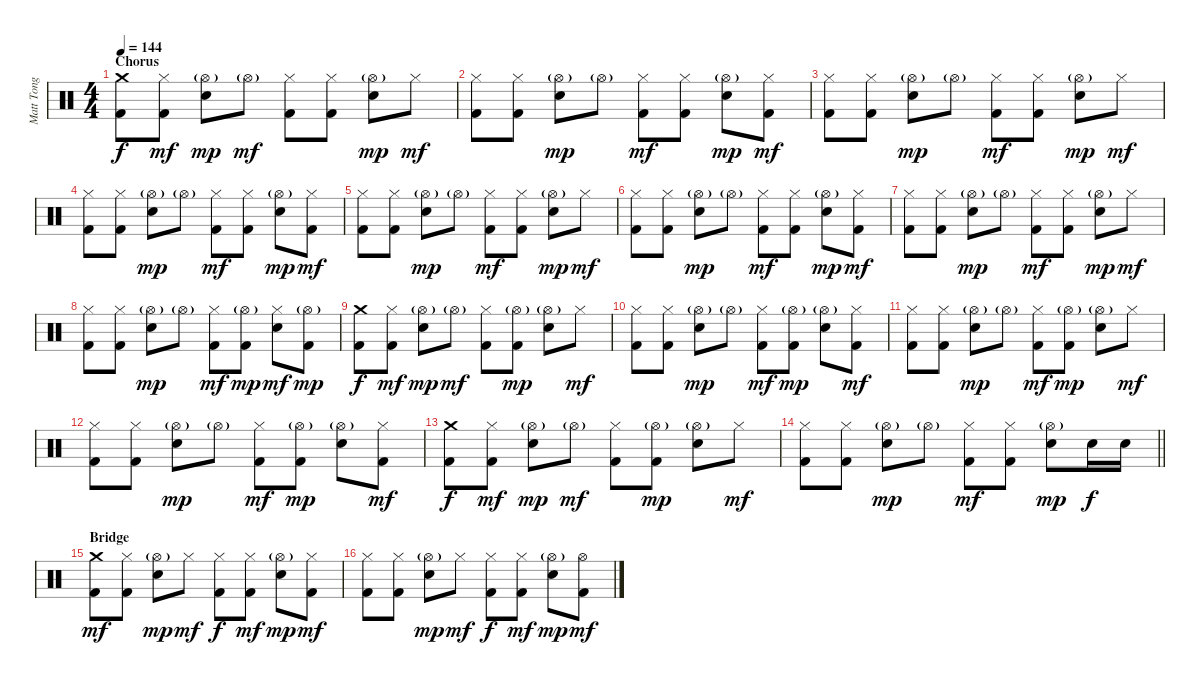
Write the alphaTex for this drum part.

\track ("Matt Tong" "Matt Tong") {instrument percussion}
\staff {score}
\articulation defaults
\ts (4 4)
\section ("" "Chorus")
\tempo 144
\clef neutral
\ks c
("Crash medium (hit)" "Kick (hit) 2").8{dy f} ("Hi-Hat (closed)" "Kick (hit) 2").8{dy mf} ("Hi-Hat (open)"{g} "Electric Snare (hit)").8{dy mp} "Hi-Hat (open)"{g}.8{dy mf} ("Hi-Hat (closed)" "Kick (hit) 2").8 ("Hi-Hat (closed)" "Kick (hit) 2").8 ("Hi-Hat (open)"{g} "Electric Snare (hit)").8{dy mp} "Hi-Hat (closed)".8{dy mf} |
("Hi-Hat (closed)" "Kick (hit) 2").8 ("Hi-Hat (closed)" "Kick (hit) 2").8 ("Hi-Hat (open)"{g} "Electric Snare (hit)").8{dy mp} "Hi-Hat (open)"{g}.8 ("Hi-Hat (closed)" "Kick (hit) 2").8{dy mf} ("Hi-Hat (closed)" "Kick (hit) 2").8 ("Hi-Hat (open)"{g} "Electric Snare (hit)").8{dy mp} ("Hi-Hat (closed)" "Kick (hit) 2").8{dy mf} |
("Hi-Hat (closed)" "Kick (hit) 2").8 ("Hi-Hat (closed)" "Kick (hit) 2").8 ("Hi-Hat (open)"{g} "Electric Snare (hit)").8{dy mp} "Hi-Hat (open)"{g}.8 ("Hi-Hat (closed)" "Kick (hit) 2").8{dy mf} ("Hi-Hat (closed)" "Kick (hit) 2").8 ("Hi-Hat (open)"{g} "Electric Snare (hit)").8{dy mp} "Hi-Hat (closed)".8{dy mf} |
("Hi-Hat (closed)" "Kick (hit) 2").8 ("Hi-Hat (closed)" "Kick (hit) 2").8 ("Hi-Hat (open)"{g} "Electric Snare (hit)").8{dy mp} "Hi-Hat (open)"{g}.8 ("Hi-Hat (closed)" "Kick (hit) 2").8{dy mf} ("Hi-Hat (closed)" "Kick (hit) 2").8 ("Hi-Hat (open)"{g} "Electric Snare (hit)").8{dy mp} ("Hi-Hat (closed)" "Kick (hit) 2").8{dy mf} |
("Hi-Hat (closed)" "Kick (hit) 2").8 ("Hi-Hat (closed)" "Kick (hit) 2").8 ("Hi-Hat (open)"{g} "Electric Snare (hit)").8{dy mp} "Hi-Hat (open)"{g}.8 ("Hi-Hat (closed)" "Kick (hit) 2").8{dy mf} ("Hi-Hat (closed)" "Kick (hit) 2").8 ("Hi-Hat (open)"{g} "Electric Snare (hit)").8{dy mp} "Hi-Hat (closed)".8{dy mf} |
("Hi-Hat (closed)" "Kick (hit) 2").8 ("Hi-Hat (closed)" "Kick (hit) 2").8 ("Hi-Hat (open)"{g} "Electric Snare (hit)").8{dy mp} "Hi-Hat (open)"{g}.8 ("Hi-Hat (closed)" "Kick (hit) 2").8{dy mf} ("Hi-Hat (closed)" "Kick (hit) 2").8 ("Hi-Hat (open)"{g} "Electric Snare (hit)").8{dy mp} ("Hi-Hat (closed)" "Kick (hit) 2").8{dy mf} |
("Hi-Hat (closed)" "Kick (hit) 2").8 ("Hi-Hat (closed)" "Kick (hit) 2").8 ("Hi-Hat (open)"{g} "Electric Snare (hit)").8{dy mp} "Hi-Hat (open)"{g}.8 ("Hi-Hat (closed)" "Kick (hit) 2").8{dy mf} ("Hi-Hat (closed)" "Kick (hit) 2").8 ("Hi-Hat (open)"{g} "Electric Snare (hit)").8{dy mp} "Hi-Hat (closed)".8{dy mf} |
("Hi-Hat (closed)" "Kick (hit) 2").8 ("Hi-Hat (closed)" "Kick (hit) 2").8 ("Hi-Hat (open)"{g} "Electric Snare (hit)").8{dy mp} "Hi-Hat (open)"{g}.8 ("Hi-Hat (closed)" "Kick (hit) 2").8{dy mf} ("Hi-Hat (open)"{g} "Kick (hit) 2").8{dy mp} ("Hi-Hat (closed)" "Electric Snare (hit)").8{dy mf} ("Hi-Hat (open)"{g} "Kick (hit) 2").8{dy mp} |
("Crash medium (hit)" "Kick (hit) 2").8{dy f} ("Hi-Hat (closed)" "Kick (hit) 2").8{dy mf} ("Hi-Hat (open)"{g} "Electric Snare (hit)").8{dy mp} "Hi-Hat (open)"{g}.8{dy mf} ("Hi-Hat (closed)" "Kick (hit) 2").8 ("Hi-Hat (open)"{g} "Kick (hit) 2").8{dy mp} ("Hi-Hat (open)"{g} "Electric Snare (hit)").8 "Hi-Hat (closed)".8{dy mf} |
("Hi-Hat (closed)" "Kick (hit) 2").8 ("Hi-Hat (closed)" "Kick (hit) 2").8 ("Hi-Hat (open)"{g} "Electric Snare (hit)").8{dy mp} "Hi-Hat (open)"{g}.8 ("Hi-Hat (closed)" "Kick (hit) 2").8{dy mf} ("Hi-Hat (open)"{g} "Kick (hit) 2").8{dy mp} ("Hi-Hat (open)"{g} "Electric Snare (hit)").8 ("Hi-Hat (closed)" "Kick (hit) 2").8{dy mf} |
("Hi-Hat (closed)" "Kick (hit) 2").8 ("Hi-Hat (closed)" "Kick (hit) 2").8 ("Hi-Hat (open)"{g} "Electric Snare (hit)").8{dy mp} "Hi-Hat (open)"{g}.8 ("Hi-Hat (closed)" "Kick (hit) 2").8{dy mf} ("Hi-Hat (open)"{g} "Kick (hit) 2").8{dy mp} ("Hi-Hat (open)"{g} "Electric Snare (hit)").8 "Hi-Hat (closed)".8{dy mf} |
("Hi-Hat (closed)" "Kick (hit) 2").8 ("Hi-Hat (closed)" "Kick (hit) 2").8 ("Hi-Hat (open)"{g} "Electric Snare (hit)").8{dy mp} "Hi-Hat (open)"{g}.8 ("Hi-Hat (closed)" "Kick (hit) 2").8{dy mf} ("Hi-Hat (open)"{g} "Kick (hit) 2").8{dy mp} ("Hi-Hat (open)"{g} "Electric Snare (hit)").8 ("Hi-Hat (closed)" "Kick (hit) 2").8{dy mf} |
("Crash medium (hit)" "Kick (hit) 2").8{dy f} ("Hi-Hat (closed)" "Kick (hit) 2").8{dy mf} ("Hi-Hat (open)"{g} "Electric Snare (hit)").8{dy mp} "Hi-Hat (open)"{g}.8{dy mf} ("Hi-Hat (closed)" "Kick (hit) 2").8 ("Hi-Hat (open)"{g} "Kick (hit) 2").8{dy mp} ("Hi-Hat (open)"{g} "Electric Snare (hit)").8 "Hi-Hat (closed)".8{dy mf} |
\barLineRight lightlight
("Hi-Hat (closed)" "Kick (hit) 2").8 ("Hi-Hat (closed)" "Kick (hit) 2").8 ("Hi-Hat (open)"{g} "Electric Snare (hit)").8{dy mp} "Hi-Hat (open)"{g}.8 ("Hi-Hat (closed)" "Kick (hit) 2").8{dy mf} ("Hi-Hat (closed)" "Kick (hit) 2").8 ("Hi-Hat (open)"{g} "Electric Snare (hit)").8{dy mp} "Electric Snare (hit)".16{dy f} "Electric Snare (hit)".16 |
\section ("" "Bridge")
("Crash medium (hit)" "Kick (hit) 2").8{dy mf} ("Hi-Hat (closed)" "Kick (hit) 2").8 ("Hi-Hat (open)"{g} "Electric Snare (hit)").8{dy mp} "Hi-Hat (closed)".8{dy mf} ("Hi-Hat (closed)" "Kick (hit) 2").8{dy f} ("Hi-Hat (closed)" "Kick (hit) 2").8{dy mf} ("Hi-Hat (open)"{g} "Electric Snare (hit)").8{dy mp} ("Hi-Hat (closed)" "Kick (hit) 2").8{dy mf} |
("Hi-Hat (closed)" "Kick (hit) 2").8 ("Hi-Hat (closed)" "Kick (hit) 2").8 ("Hi-Hat (open)"{g} "Electric Snare (hit)").8{dy mp} "Hi-Hat (closed)".8{dy mf} ("Hi-Hat (closed)" "Kick (hit) 2").8{dy f} ("Hi-Hat (closed)" "Kick (hit) 2").8{dy mf} ("Hi-Hat (open)"{g} "Electric Snare (hit)").8{dy mp} ("Hi-Hat (open)" "Kick (hit) 2").8{dy mf}
